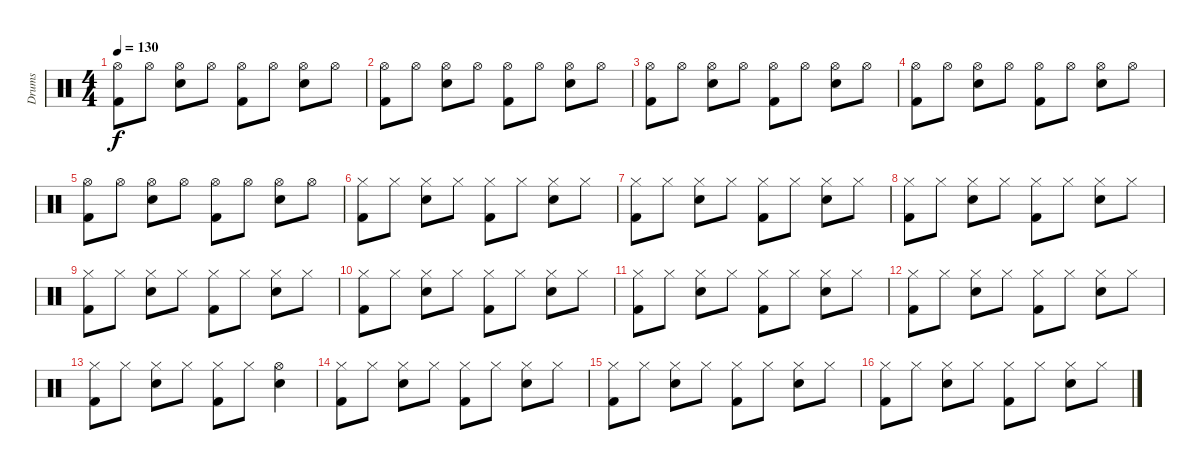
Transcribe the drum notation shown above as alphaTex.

\track ("Drums" "Drums") {instrument percussion}
\staff {score}
\articulation defaults
\ts (4 4)
\tempo 130
\clef neutral
\ks c
("Hi-Hat (open)" "Kick (hit) 2").8{dy f} "Hi-Hat (open)".8 ("Hi-Hat (open)" "Snare (hit) 2").8 "Hi-Hat (open)".8 ("Hi-Hat (open)" "Kick (hit) 2").8 "Hi-Hat (open)".8 ("Hi-Hat (open)" "Snare (hit) 2").8 "Hi-Hat (open)".8 |
("Hi-Hat (open)" "Kick (hit) 2").8 "Hi-Hat (open)".8 ("Hi-Hat (open)" "Snare (hit) 2").8 "Hi-Hat (open)".8 ("Hi-Hat (open)" "Kick (hit) 2").8 "Hi-Hat (open)".8 ("Hi-Hat (open)" "Snare (hit) 2").8 "Hi-Hat (open)".8 |
("Hi-Hat (open)" "Kick (hit) 2").8 "Hi-Hat (open)".8 ("Hi-Hat (open)" "Snare (hit) 2").8 "Hi-Hat (open)".8 ("Hi-Hat (open)" "Kick (hit) 2").8 "Hi-Hat (open)".8 ("Hi-Hat (open)" "Snare (hit) 2").8 "Hi-Hat (open)".8 |
("Hi-Hat (open)" "Kick (hit) 2").8 "Hi-Hat (open)".8 ("Hi-Hat (open)" "Snare (hit) 2").8 "Hi-Hat (open)".8 ("Hi-Hat (open)" "Kick (hit) 2").8 "Hi-Hat (open)".8 ("Hi-Hat (open)" "Snare (hit) 2").8 "Hi-Hat (open)".8 |
("Hi-Hat (open)" "Kick (hit) 2").8 "Hi-Hat (open)".8 ("Hi-Hat (open)" "Snare (hit) 2").8 "Hi-Hat (open)".8 ("Hi-Hat (open)" "Kick (hit) 2").8 "Hi-Hat (open)".8 ("Hi-Hat (open)" "Snare (hit) 2").8 "Hi-Hat (open)".8 |
("Hi-Hat (closed)" "Kick (hit) 2").8 "Hi-Hat (closed)".8 ("Hi-Hat (closed)" "Snare (hit) 2").8 "Hi-Hat (closed)".8 ("Hi-Hat (closed)" "Kick (hit) 2").8 "Hi-Hat (closed)".8 ("Hi-Hat (closed)" "Snare (hit) 2").8 "Hi-Hat (closed)".8 |
("Hi-Hat (closed)" "Kick (hit) 2").8 "Hi-Hat (closed)".8 ("Hi-Hat (closed)" "Snare (hit) 2").8 "Hi-Hat (closed)".8 ("Hi-Hat (closed)" "Kick (hit) 2").8 "Hi-Hat (closed)".8 ("Hi-Hat (closed)" "Snare (hit) 2").8 "Hi-Hat (closed)".8 |
("Hi-Hat (closed)" "Kick (hit) 2").8 "Hi-Hat (closed)".8 ("Hi-Hat (closed)" "Snare (hit) 2").8 "Hi-Hat (closed)".8 ("Hi-Hat (closed)" "Kick (hit) 2").8 "Hi-Hat (closed)".8 ("Hi-Hat (closed)" "Snare (hit) 2").8 "Hi-Hat (closed)".8 |
("Hi-Hat (closed)" "Kick (hit) 2").8 "Hi-Hat (closed)".8 ("Hi-Hat (closed)" "Snare (hit) 2").8 "Hi-Hat (closed)".8 ("Hi-Hat (closed)" "Kick (hit) 2").8 "Hi-Hat (closed)".8 ("Hi-Hat (closed)" "Snare (hit) 2").8 "Hi-Hat (closed)".8 |
("Hi-Hat (closed)" "Kick (hit) 2").8 "Hi-Hat (closed)".8 ("Hi-Hat (closed)" "Snare (hit) 2").8 "Hi-Hat (closed)".8 ("Hi-Hat (closed)" "Kick (hit) 2").8 "Hi-Hat (closed)".8 ("Hi-Hat (closed)" "Snare (hit) 2").8 "Hi-Hat (closed)".8 |
("Hi-Hat (closed)" "Kick (hit) 2").8 "Hi-Hat (closed)".8 ("Hi-Hat (closed)" "Snare (hit) 2").8 "Hi-Hat (closed)".8 ("Hi-Hat (closed)" "Kick (hit) 2").8 "Hi-Hat (closed)".8 ("Hi-Hat (closed)" "Snare (hit) 2").8 "Hi-Hat (closed)".8 |
("Hi-Hat (closed)" "Kick (hit) 2").8 "Hi-Hat (closed)".8 ("Hi-Hat (closed)" "Snare (hit) 2").8 "Hi-Hat (closed)".8 ("Hi-Hat (closed)" "Kick (hit) 2").8 "Hi-Hat (closed)".8 ("Hi-Hat (closed)" "Snare (hit) 2").8 "Hi-Hat (closed)".8 |
("Hi-Hat (closed)" "Kick (hit) 2").8 "Hi-Hat (closed)".8 ("Hi-Hat (closed)" "Snare (hit) 2").8 "Hi-Hat (closed)".8 ("Hi-Hat (closed)" "Kick (hit) 2").8 "Hi-Hat (closed)".8 ("Hi-Hat (open)" "Snare (hit) 2").4 |
("Hi-Hat (closed)" "Kick (hit) 2").8 "Hi-Hat (closed)".8 ("Hi-Hat (closed)" "Snare (hit) 2").8 "Hi-Hat (closed)".8 ("Hi-Hat (closed)" "Kick (hit) 2").8 "Hi-Hat (closed)".8 ("Hi-Hat (closed)" "Snare (hit) 2").8 "Hi-Hat (closed)".8 |
("Hi-Hat (closed)" "Kick (hit) 2").8 "Hi-Hat (closed)".8 ("Hi-Hat (closed)" "Snare (hit) 2").8 "Hi-Hat (closed)".8 ("Hi-Hat (closed)" "Kick (hit) 2").8 "Hi-Hat (closed)".8 ("Hi-Hat (closed)" "Snare (hit) 2").8 "Hi-Hat (closed)".8 |
("Hi-Hat (closed)" "Kick (hit) 2").8 "Hi-Hat (closed)".8 ("Hi-Hat (closed)" "Snare (hit) 2").8 "Hi-Hat (closed)".8 ("Hi-Hat (closed)" "Kick (hit) 2").8 "Hi-Hat (closed)".8 ("Hi-Hat (closed)" "Snare (hit) 2").8 "Hi-Hat (closed)".8
